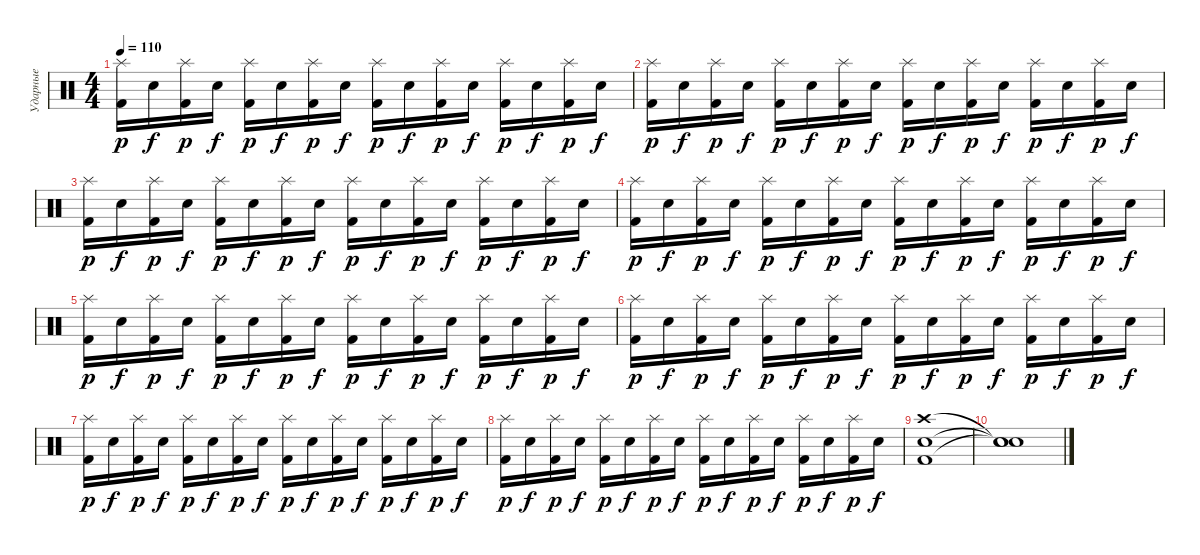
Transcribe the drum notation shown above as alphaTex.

\track ("Ударные" "Ударные") {instrument percussion}
\staff {score}
\articulation defaults
\ts (4 4)
\tempo 110
\clef neutral
\ks c
("Splash (hit)" "Kick (hit) 2").16{dy p} "Electric Snare (hit)".16{dy f} ("Splash (hit)" "Kick (hit) 2").16{dy p} "Electric Snare (hit)".16{dy f} ("Splash (hit)" "Kick (hit) 2").16{dy p} "Electric Snare (hit)".16{dy f} ("Splash (hit)" "Kick (hit) 2").16{dy p} "Electric Snare (hit)".16{dy f} ("Splash (hit)" "Kick (hit) 2").16{dy p} "Electric Snare (hit)".16{dy f} ("Splash (hit)" "Kick (hit) 2").16{dy p} "Electric Snare (hit)".16{dy f} ("Splash (hit)" "Kick (hit) 2").16{dy p} "Electric Snare (hit)".16{dy f} ("Splash (hit)" "Kick (hit) 2").16{dy p} "Electric Snare (hit)".16{dy f} |
("Splash (hit)" "Kick (hit) 2").16{dy p} "Electric Snare (hit)".16{dy f} ("Splash (hit)" "Kick (hit) 2").16{dy p} "Electric Snare (hit)".16{dy f} ("Splash (hit)" "Kick (hit) 2").16{dy p} "Electric Snare (hit)".16{dy f} ("Splash (hit)" "Kick (hit) 2").16{dy p} "Electric Snare (hit)".16{dy f} ("Splash (hit)" "Kick (hit) 2").16{dy p} "Electric Snare (hit)".16{dy f} ("Splash (hit)" "Kick (hit) 2").16{dy p} "Electric Snare (hit)".16{dy f} ("Splash (hit)" "Kick (hit) 2").16{dy p} "Electric Snare (hit)".16{dy f} ("Splash (hit)" "Kick (hit) 2").16{dy p} "Electric Snare (hit)".16{dy f} |
("Splash (hit)" "Kick (hit) 2").16{dy p} "Electric Snare (hit)".16{dy f} ("Splash (hit)" "Kick (hit) 2").16{dy p} "Electric Snare (hit)".16{dy f} ("Splash (hit)" "Kick (hit) 2").16{dy p} "Electric Snare (hit)".16{dy f} ("Splash (hit)" "Kick (hit) 2").16{dy p} "Electric Snare (hit)".16{dy f} ("Splash (hit)" "Kick (hit) 2").16{dy p} "Electric Snare (hit)".16{dy f} ("Splash (hit)" "Kick (hit) 2").16{dy p} "Electric Snare (hit)".16{dy f} ("Splash (hit)" "Kick (hit) 2").16{dy p} "Electric Snare (hit)".16{dy f} ("Splash (hit)" "Kick (hit) 2").16{dy p} "Electric Snare (hit)".16{dy f} |
("Splash (hit)" "Kick (hit) 2").16{dy p} "Electric Snare (hit)".16{dy f} ("Splash (hit)" "Kick (hit) 2").16{dy p} "Electric Snare (hit)".16{dy f} ("Splash (hit)" "Kick (hit) 2").16{dy p} "Electric Snare (hit)".16{dy f} ("Splash (hit)" "Kick (hit) 2").16{dy p} "Electric Snare (hit)".16{dy f} ("Splash (hit)" "Kick (hit) 2").16{dy p} "Electric Snare (hit)".16{dy f} ("Splash (hit)" "Kick (hit) 2").16{dy p} "Electric Snare (hit)".16{dy f} ("Splash (hit)" "Kick (hit) 2").16{dy p} "Electric Snare (hit)".16{dy f} ("Splash (hit)" "Kick (hit) 2").16{dy p} "Electric Snare (hit)".16{dy f} |
("Splash (hit)" "Kick (hit) 2").16{dy p} "Electric Snare (hit)".16{dy f} ("Splash (hit)" "Kick (hit) 2").16{dy p} "Electric Snare (hit)".16{dy f} ("Splash (hit)" "Kick (hit) 2").16{dy p} "Electric Snare (hit)".16{dy f} ("Splash (hit)" "Kick (hit) 2").16{dy p} "Electric Snare (hit)".16{dy f} ("Splash (hit)" "Kick (hit) 2").16{dy p} "Electric Snare (hit)".16{dy f} ("Splash (hit)" "Kick (hit) 2").16{dy p} "Electric Snare (hit)".16{dy f} ("Splash (hit)" "Kick (hit) 2").16{dy p} "Electric Snare (hit)".16{dy f} ("Splash (hit)" "Kick (hit) 2").16{dy p} "Electric Snare (hit)".16{dy f} |
("Splash (hit)" "Kick (hit) 2").16{dy p} "Electric Snare (hit)".16{dy f} ("Splash (hit)" "Kick (hit) 2").16{dy p} "Electric Snare (hit)".16{dy f} ("Splash (hit)" "Kick (hit) 2").16{dy p} "Electric Snare (hit)".16{dy f} ("Splash (hit)" "Kick (hit) 2").16{dy p} "Electric Snare (hit)".16{dy f} ("Splash (hit)" "Kick (hit) 2").16{dy p} "Electric Snare (hit)".16{dy f} ("Splash (hit)" "Kick (hit) 2").16{dy p} "Electric Snare (hit)".16{dy f} ("Splash (hit)" "Kick (hit) 2").16{dy p} "Electric Snare (hit)".16{dy f} ("Splash (hit)" "Kick (hit) 2").16{dy p} "Electric Snare (hit)".16{dy f} |
("Splash (hit)" "Kick (hit) 2").16{dy p} "Electric Snare (hit)".16{dy f} ("Splash (hit)" "Kick (hit) 2").16{dy p} "Electric Snare (hit)".16{dy f} ("Splash (hit)" "Kick (hit) 2").16{dy p} "Electric Snare (hit)".16{dy f} ("Splash (hit)" "Kick (hit) 2").16{dy p} "Electric Snare (hit)".16{dy f} ("Splash (hit)" "Kick (hit) 2").16{dy p} "Electric Snare (hit)".16{dy f} ("Splash (hit)" "Kick (hit) 2").16{dy p} "Electric Snare (hit)".16{dy f} ("Splash (hit)" "Kick (hit) 2").16{dy p} "Electric Snare (hit)".16{dy f} ("Splash (hit)" "Kick (hit) 2").16{dy p} "Electric Snare (hit)".16{dy f} |
("Splash (hit)" "Kick (hit) 2").16{dy p} "Electric Snare (hit)".16{dy f} ("Splash (hit)" "Kick (hit) 2").16{dy p} "Electric Snare (hit)".16{dy f} ("Splash (hit)" "Kick (hit) 2").16{dy p} "Electric Snare (hit)".16{dy f} ("Splash (hit)" "Kick (hit) 2").16{dy p} "Electric Snare (hit)".16{dy f} ("Splash (hit)" "Kick (hit) 2").16{dy p} "Electric Snare (hit)".16{dy f} ("Splash (hit)" "Kick (hit) 2").16{dy p} "Electric Snare (hit)".16{dy f} ("Splash (hit)" "Kick (hit) 2").16{dy p} "Electric Snare (hit)".16{dy f} ("Splash (hit)" "Kick (hit) 2").16{dy p} "Electric Snare (hit)".16{dy f} |
("Crash high (hit)" "Electric Snare (hit)" "Kick (hit) 2").1 |
("Snare (hit)"{t} "Snare (hit)"{t} "Snare (hit)"{t}).1
